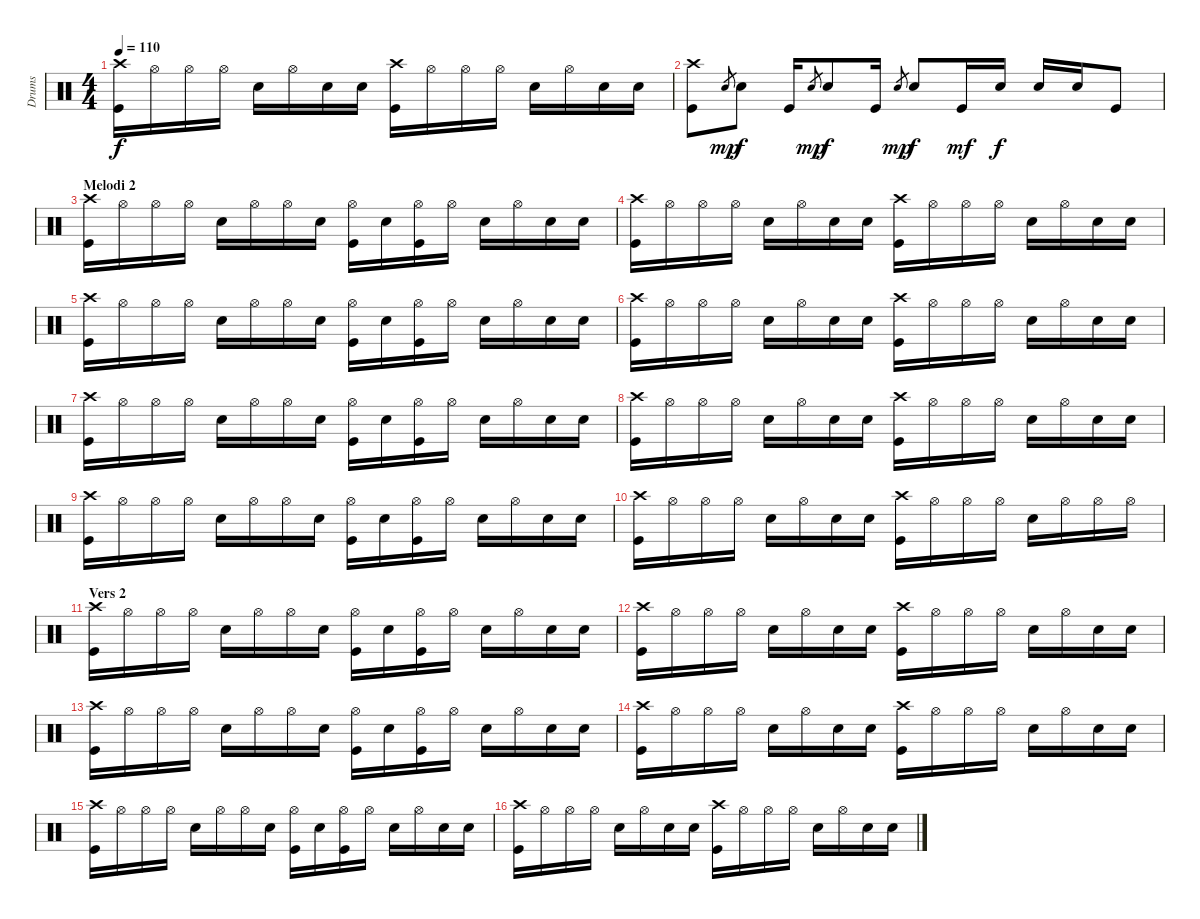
\track ("Drums" "Drums") {instrument percussion}
\staff {score}
\articulation defaults
\ts (4 4)
\tempo 110
\clef neutral
\ks c
("Crash high (hit)" "Kick (hit)").16{dy f} "Hi-Hat (open)".16 "Hi-Hat (open)".16 "Hi-Hat (open)".16 "Snare (hit) 2".16 "Hi-Hat (open)".16 "Snare (hit) 2".16 "Snare (hit) 2".16 ("Crash high (hit)" "Kick (hit)").16 "Hi-Hat (open)".16 "Hi-Hat (open)".16 "Hi-Hat (open)".16 "Snare (hit) 2".16 "Hi-Hat (open)".16 "Snare (hit) 2".16 "Snare (hit) 2".16 |
("Crash high (hit)" "Kick (hit)").8 "Snare (hit) 2".8{gr dy mp} "Snare (hit) 2".8{dy f} "Kick (hit)".16 "Snare (hit) 2".8{gr dy mp} "Snare (hit) 2".8{dy f} "Kick (hit)".16 "Snare (hit) 2".8{gr dy mp} "Snare (hit) 2".8{dy f} "Kick (hit)".16{dy mf} "Snare (hit) 2".16{dy f} "Snare (hit) 2".16 "Snare (hit) 2".16 "Kick (hit)".8 |
\section ("" "Melodi 2")
("Crash high (hit)" "Kick (hit)").16 "Hi-Hat (open)".16 "Hi-Hat (open)".16 "Hi-Hat (open)".16 "Snare (hit) 2".16 "Hi-Hat (open)".16 "Hi-Hat (open)".16 "Snare (hit) 2".16 ("Hi-Hat (open)" "Kick (hit)").16 "Snare (hit) 2".16 ("Hi-Hat (open)" "Kick (hit)").16 "Hi-Hat (open)".16 "Snare (hit) 2".16 "Hi-Hat (open)".16 "Snare (hit) 2".16 "Snare (hit) 2".16 |
("Crash high (hit)" "Kick (hit)").16 "Hi-Hat (open)".16 "Hi-Hat (open)".16 "Hi-Hat (open)".16 "Snare (hit) 2".16 "Hi-Hat (open)".16 "Snare (hit) 2".16 "Snare (hit) 2".16 ("Crash high (hit)" "Kick (hit)").16 "Hi-Hat (open)".16 "Hi-Hat (open)".16 "Hi-Hat (open)".16 "Snare (hit) 2".16 "Hi-Hat (open)".16 "Snare (hit) 2".16 "Snare (hit) 2".16 |
("Crash high (hit)" "Kick (hit)").16 "Hi-Hat (open)".16 "Hi-Hat (open)".16 "Hi-Hat (open)".16 "Snare (hit) 2".16 "Hi-Hat (open)".16 "Hi-Hat (open)".16 "Snare (hit) 2".16 ("Hi-Hat (open)" "Kick (hit)").16 "Snare (hit) 2".16 ("Hi-Hat (open)" "Kick (hit)").16 "Hi-Hat (open)".16 "Snare (hit) 2".16 "Hi-Hat (open)".16 "Snare (hit) 2".16 "Snare (hit) 2".16 |
("Crash high (hit)" "Kick (hit)").16 "Hi-Hat (open)".16 "Hi-Hat (open)".16 "Hi-Hat (open)".16 "Snare (hit) 2".16 "Hi-Hat (open)".16 "Snare (hit) 2".16 "Snare (hit) 2".16 ("Crash high (hit)" "Kick (hit)").16 "Hi-Hat (open)".16 "Hi-Hat (open)".16 "Hi-Hat (open)".16 "Snare (hit) 2".16 "Hi-Hat (open)".16 "Snare (hit) 2".16 "Snare (hit) 2".16 |
("Crash high (hit)" "Kick (hit)").16 "Hi-Hat (open)".16 "Hi-Hat (open)".16 "Hi-Hat (open)".16 "Snare (hit) 2".16 "Hi-Hat (open)".16 "Hi-Hat (open)".16 "Snare (hit) 2".16 ("Hi-Hat (open)" "Kick (hit)").16 "Snare (hit) 2".16 ("Hi-Hat (open)" "Kick (hit)").16 "Hi-Hat (open)".16 "Snare (hit) 2".16 "Hi-Hat (open)".16 "Snare (hit) 2".16 "Snare (hit) 2".16 |
("Crash high (hit)" "Kick (hit)").16 "Hi-Hat (open)".16 "Hi-Hat (open)".16 "Hi-Hat (open)".16 "Snare (hit) 2".16 "Hi-Hat (open)".16 "Snare (hit) 2".16 "Snare (hit) 2".16 ("Crash high (hit)" "Kick (hit)").16 "Hi-Hat (open)".16 "Hi-Hat (open)".16 "Hi-Hat (open)".16 "Snare (hit) 2".16 "Hi-Hat (open)".16 "Snare (hit) 2".16 "Snare (hit) 2".16 |
("Crash high (hit)" "Kick (hit)").16 "Hi-Hat (open)".16 "Hi-Hat (open)".16 "Hi-Hat (open)".16 "Snare (hit) 2".16 "Hi-Hat (open)".16 "Hi-Hat (open)".16 "Snare (hit) 2".16 ("Hi-Hat (open)" "Kick (hit)").16 "Snare (hit) 2".16 ("Hi-Hat (open)" "Kick (hit)").16 "Hi-Hat (open)".16 "Snare (hit) 2".16 "Hi-Hat (open)".16 "Snare (hit) 2".16 "Snare (hit) 2".16 |
("Crash high (hit)" "Kick (hit)").16 "Hi-Hat (open)".16 "Hi-Hat (open)".16 "Hi-Hat (open)".16 "Snare (hit) 2".16 "Hi-Hat (open)".16 "Snare (hit) 2".16 "Snare (hit) 2".16 ("Crash high (hit)" "Kick (hit)").16 "Hi-Hat (open)".16 "Hi-Hat (open)".16 "Hi-Hat (open)".16 "Snare (hit) 2".16 "Hi-Hat (open)".16 "Hi-Hat (open)".16 "Hi-Hat (open)".16 |
\section ("" "Vers 2")
("Crash high (hit)" "Kick (hit)").16 "Hi-Hat (open)".16 "Hi-Hat (open)".16 "Hi-Hat (open)".16 "Snare (hit) 2".16 "Hi-Hat (open)".16 "Hi-Hat (open)".16 "Snare (hit) 2".16 ("Hi-Hat (open)" "Kick (hit)").16 "Snare (hit) 2".16 ("Hi-Hat (open)" "Kick (hit)").16 "Hi-Hat (open)".16 "Snare (hit) 2".16 "Hi-Hat (open)".16 "Snare (hit) 2".16 "Snare (hit) 2".16 |
("Crash high (hit)" "Kick (hit)").16 "Hi-Hat (open)".16 "Hi-Hat (open)".16 "Hi-Hat (open)".16 "Snare (hit) 2".16 "Hi-Hat (open)".16 "Snare (hit) 2".16 "Snare (hit) 2".16 ("Crash high (hit)" "Kick (hit)").16 "Hi-Hat (open)".16 "Hi-Hat (open)".16 "Hi-Hat (open)".16 "Snare (hit) 2".16 "Hi-Hat (open)".16 "Snare (hit) 2".16 "Snare (hit) 2".16 |
("Crash high (hit)" "Kick (hit)").16 "Hi-Hat (open)".16 "Hi-Hat (open)".16 "Hi-Hat (open)".16 "Snare (hit) 2".16 "Hi-Hat (open)".16 "Hi-Hat (open)".16 "Snare (hit) 2".16 ("Hi-Hat (open)" "Kick (hit)").16 "Snare (hit) 2".16 ("Hi-Hat (open)" "Kick (hit)").16 "Hi-Hat (open)".16 "Snare (hit) 2".16 "Hi-Hat (open)".16 "Snare (hit) 2".16 "Snare (hit) 2".16 |
("Crash high (hit)" "Kick (hit)").16 "Hi-Hat (open)".16 "Hi-Hat (open)".16 "Hi-Hat (open)".16 "Snare (hit) 2".16 "Hi-Hat (open)".16 "Snare (hit) 2".16 "Snare (hit) 2".16 ("Crash high (hit)" "Kick (hit)").16 "Hi-Hat (open)".16 "Hi-Hat (open)".16 "Hi-Hat (open)".16 "Snare (hit) 2".16 "Hi-Hat (open)".16 "Snare (hit) 2".16 "Snare (hit) 2".16 |
("Crash high (hit)" "Kick (hit)").16 "Hi-Hat (open)".16 "Hi-Hat (open)".16 "Hi-Hat (open)".16 "Snare (hit) 2".16 "Hi-Hat (open)".16 "Hi-Hat (open)".16 "Snare (hit) 2".16 ("Hi-Hat (open)" "Kick (hit)").16 "Snare (hit) 2".16 ("Hi-Hat (open)" "Kick (hit)").16 "Hi-Hat (open)".16 "Snare (hit) 2".16 "Hi-Hat (open)".16 "Snare (hit) 2".16 "Snare (hit) 2".16 |
("Crash high (hit)" "Kick (hit)").16 "Hi-Hat (open)".16 "Hi-Hat (open)".16 "Hi-Hat (open)".16 "Snare (hit) 2".16 "Hi-Hat (open)".16 "Snare (hit) 2".16 "Snare (hit) 2".16 ("Crash high (hit)" "Kick (hit)").16 "Hi-Hat (open)".16 "Hi-Hat (open)".16 "Hi-Hat (open)".16 "Snare (hit) 2".16 "Hi-Hat (open)".16 "Snare (hit) 2".16 "Snare (hit) 2".16
